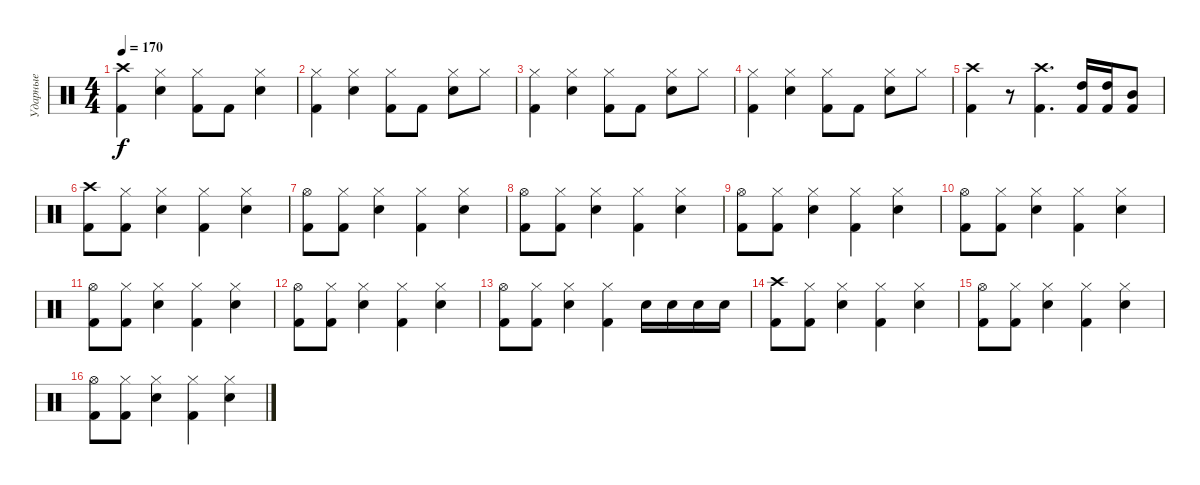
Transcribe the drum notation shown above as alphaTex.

\track ("Ударные" "Ударные") {instrument percussion}
\staff {score}
\articulation defaults
\ts (4 4)
\tempo 170
\clef neutral
\ks c
("Crash high (hit)" "Kick (hit) 2").4{dy f} ("Hi-Hat (closed)" "Snare (hit) 2").4 ("Hi-Hat (closed)" "Kick (hit) 2").8 "Kick (hit) 2".8 ("Hi-Hat (closed)" "Snare (hit) 2").4 |
("Hi-Hat (closed)" "Kick (hit) 2").4 ("Hi-Hat (closed)" "Snare (hit) 2").4 ("Hi-Hat (closed)" "Kick (hit) 2").8 "Kick (hit) 2".8 ("Hi-Hat (closed)" "Snare (hit) 2").8 "Hi-Hat (closed)".8 |
("Hi-Hat (closed)" "Kick (hit) 2").4 ("Hi-Hat (closed)" "Snare (hit) 2").4 ("Hi-Hat (closed)" "Kick (hit) 2").8 "Kick (hit) 2".8 ("Hi-Hat (closed)" "Snare (hit) 2").8 "Hi-Hat (closed)".8 |
("Hi-Hat (closed)" "Kick (hit) 2").4 ("Hi-Hat (closed)" "Snare (hit) 2").4 ("Hi-Hat (closed)" "Kick (hit) 2").8 "Kick (hit) 2".8 ("Hi-Hat (closed)" "Snare (hit) 2").8 "Hi-Hat (closed)".8 |
("Crash high (hit)" "Kick (hit) 2").4 r.8 ("Crash high (hit)" "Kick (hit) 2").4{d} ("High Tom (hit)" "Kick (hit) 2").16 ("High Tom (hit)" "Kick (hit) 2").16 ("Mid Tom (hit)" "Kick (hit) 2").8 |
("Crash high (hit)" "Kick (hit) 2").8 ("Hi-Hat (closed)" "Kick (hit) 2").8 ("Snare (hit) 2" "Hi-Hat (closed)").4 ("Hi-Hat (closed)" "Kick (hit) 2").4 ("Snare (hit) 2" "Hi-Hat (closed)").4 |
("Hi-Hat (open)" "Kick (hit) 2").8 ("Hi-Hat (closed)" "Kick (hit) 2").8 ("Snare (hit) 2" "Hi-Hat (closed)").4 ("Hi-Hat (closed)" "Kick (hit) 2").4 ("Snare (hit) 2" "Hi-Hat (closed)").4 |
("Hi-Hat (open)" "Kick (hit) 2").8 ("Hi-Hat (closed)" "Kick (hit) 2").8 ("Snare (hit) 2" "Hi-Hat (closed)").4 ("Hi-Hat (closed)" "Kick (hit) 2").4 ("Snare (hit) 2" "Hi-Hat (closed)").4 |
("Hi-Hat (open)" "Kick (hit) 2").8 ("Hi-Hat (closed)" "Kick (hit) 2").8 ("Snare (hit) 2" "Hi-Hat (closed)").4 ("Hi-Hat (closed)" "Kick (hit) 2").4 ("Snare (hit) 2" "Hi-Hat (closed)").4 |
("Hi-Hat (open)" "Kick (hit) 2").8 ("Hi-Hat (closed)" "Kick (hit) 2").8 ("Snare (hit) 2" "Hi-Hat (closed)").4 ("Hi-Hat (closed)" "Kick (hit) 2").4 ("Snare (hit) 2" "Hi-Hat (closed)").4 |
("Hi-Hat (open)" "Kick (hit) 2").8 ("Hi-Hat (closed)" "Kick (hit) 2").8 ("Snare (hit) 2" "Hi-Hat (closed)").4 ("Hi-Hat (closed)" "Kick (hit) 2").4 ("Snare (hit) 2" "Hi-Hat (closed)").4 |
("Hi-Hat (open)" "Kick (hit) 2").8 ("Hi-Hat (closed)" "Kick (hit) 2").8 ("Snare (hit) 2" "Hi-Hat (closed)").4 ("Hi-Hat (closed)" "Kick (hit) 2").4 ("Snare (hit) 2" "Hi-Hat (closed)").4 |
("Hi-Hat (open)" "Kick (hit) 2").8 ("Hi-Hat (closed)" "Kick (hit) 2").8 ("Snare (hit) 2" "Hi-Hat (closed)").4 ("Hi-Hat (closed)" "Kick (hit) 2").4 "Snare (hit) 2".16 "Snare (hit) 2".16 "Snare (hit) 2".16 "Snare (hit) 2".16 |
("Crash high (hit)" "Kick (hit) 2").8 ("Hi-Hat (closed)" "Kick (hit) 2").8 ("Snare (hit) 2" "Hi-Hat (closed)").4 ("Hi-Hat (closed)" "Kick (hit) 2").4 ("Snare (hit) 2" "Hi-Hat (closed)").4 |
("Hi-Hat (open)" "Kick (hit) 2").8 ("Hi-Hat (closed)" "Kick (hit) 2").8 ("Snare (hit) 2" "Hi-Hat (closed)").4 ("Hi-Hat (closed)" "Kick (hit) 2").4 ("Snare (hit) 2" "Hi-Hat (closed)").4 |
("Hi-Hat (open)" "Kick (hit) 2").8 ("Hi-Hat (closed)" "Kick (hit) 2").8 ("Snare (hit) 2" "Hi-Hat (closed)").4 ("Hi-Hat (closed)" "Kick (hit) 2").4 ("Snare (hit) 2" "Hi-Hat (closed)").4
